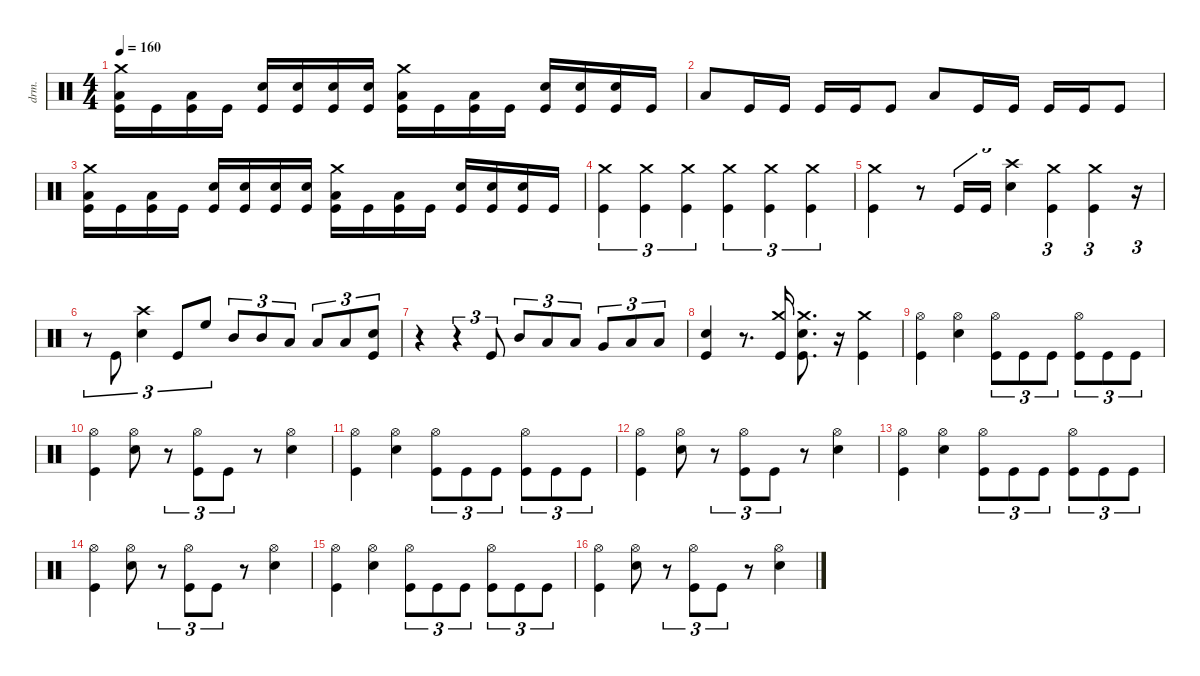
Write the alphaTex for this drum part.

\defaultSystemsLayout 4
\hideDynamics
\bracketExtendMode nobrackets
\otherSystemsTrackNameOrientation horizontal
\track ("Nick Menza" "drm.") {defaultSystemsLayout 4 instrument percussion}
\staff {score}
\articulation defaults
\ts (4 4)
\tempo 160
\clef neutral
\ks c
("Crash medium (hit)" "Low Floor Tom (hit)" "Kick (hit)").16{dy f beam Down} "Kick (hit)".16{beam Down} ("Low Floor Tom (hit)" "Kick (hit)").16{beam Down} "Kick (hit)".16{beam Down} ("Snare (hit) 2" "Kick (hit)").16{beam Up} ("Snare (hit) 2" "Kick (hit)").16{beam Up} ("Snare (hit) 2" "Kick (hit)").16{beam Up} ("Snare (hit) 2" "Kick (hit)").16{beam Up} ("Crash medium (hit)" "Low Floor Tom (hit)" "Kick (hit)").16{beam Down} "Kick (hit)".16{beam Down} ("Low Floor Tom (hit)" "Kick (hit)").16{beam Down} "Kick (hit)".16{beam Down} ("Snare (hit) 2" "Kick (hit)").16{beam Up} ("Snare (hit) 2" "Kick (hit)").16{beam Up} ("Snare (hit) 2" "Kick (hit)").16{beam Up} "Kick (hit)".16{beam Up} |
"Low Floor Tom (hit)".8{beam Up} "Kick (hit)".16{beam Up} "Kick (hit)".16{beam Up} "Kick (hit)".16{beam Up} "Kick (hit)".16{beam Up} "Kick (hit)".8{beam Up} "Low Floor Tom (hit)".8{beam Up} "Kick (hit)".16{beam Up} "Kick (hit)".16{beam Up} "Kick (hit)".16{beam Up} "Kick (hit)".16{beam Up} "Kick (hit)".8{beam Up} |
("Crash medium (hit)" "Low Floor Tom (hit)" "Kick (hit)").16{beam Down} "Kick (hit)".16{beam Down} ("Low Floor Tom (hit)" "Kick (hit)").16{beam Down} "Kick (hit)".16{beam Down} ("Snare (hit) 2" "Kick (hit)").16{beam Up} ("Snare (hit) 2" "Kick (hit)").16{beam Up} ("Snare (hit) 2" "Kick (hit)").16{beam Up} ("Snare (hit) 2" "Kick (hit)").16{beam Up} ("Crash medium (hit)" "Low Floor Tom (hit)" "Kick (hit)").16{beam Down} "Kick (hit)".16{beam Down} ("Low Floor Tom (hit)" "Kick (hit)").16{beam Down} "Kick (hit)".16{beam Down} ("Snare (hit) 2" "Kick (hit)").16{beam Up} ("Snare (hit) 2" "Kick (hit)").16{beam Up} ("Snare (hit) 2" "Kick (hit)").16{beam Up} "Kick (hit)".16{beam Up} |
("Crash medium (hit)" "Kick (hit)").4{tu (3 2) beam Down} ("Crash medium (hit)" "Kick (hit)").4{tu (3 2) beam Down} ("Crash medium (hit)" "Kick (hit)").4{tu (3 2) beam Down} ("Crash medium (hit)" "Kick (hit)").4{tu (3 2) beam Down} ("Crash medium (hit)" "Kick (hit)").4{tu (3 2) beam Down} ("Crash medium (hit)" "Kick (hit)").4{tu (3 2) beam Down} |
("Crash medium (hit)" "Kick (hit)").4{beam Down} r.8{beam Down} "Kick (hit)".16{tu (3 2) beam Up} "Kick (hit)".16{tu (3 2) beam Up} ("Crash high (hit)" "Snare (hit) 2").4{tu (3 2) beam Down} ("Crash medium (hit)" "Kick (hit)").4{tu (3 2) beam Down} ("Crash medium (hit)" "Kick (hit)").4{tu (3 2) beam Down} r.16{tu (3 2) beam Down} |
r.8{tu (3 2) beam Down} "Kick (hit)".8{tu (3 2) beam Up} ("Crash high (hit)" "Snare (hit) 2").4{tu (3 2) beam Down} "Kick (hit)".8{tu (3 2) beam Up} "High Floor Tom (hit)".8{tu (3 2) beam Up} "Mid Tom (hit)".8{tu (3 2) beam Up} "Mid Tom (hit)".8{tu (3 2) beam Up} "Low Tom (hit)".8{tu (3 2) beam Up} "Low Tom (hit)".8{tu (3 2) beam Up} "Low Tom (hit)".8{tu (3 2) beam Up} ("Snare (hit) 2" "Kick (hit)").8{tu (3 2) beam Up} |
r.4{beam Down} r.4{tu (3 2) beam Down} "Kick (hit)".8{tu (3 2) beam Up} "Mid Tom (hit)".8{tu (3 2) beam Up} "Low Tom (hit)".8{tu (3 2) beam Up} "Low Tom (hit)".8{tu (3 2) beam Up} "Very Low Tom (hit)".8{tu (3 2) beam Up} "Low Floor Tom (hit)".8{tu (3 2) beam Up} "Low Floor Tom (hit)".8{tu (3 2) beam Up} |
("Snare (hit) 2" "Kick (hit)").4{beam Up} r.8{d beam Up} ("Crash medium (hit)" "Kick (hit)").16{beam Down} ("Crash medium (hit)" "Snare (hit) 2" "Kick (hit)").8{d beam Down} r.16{beam Down} ("Crash medium (hit)" "Kick (hit)").4{beam Down} |
("Hi-Hat (open)" "Kick (hit)").4{beam Down} ("Hi-Hat (open)" "Snare (hit) 2").4{beam Down} ("Hi-Hat (open)" "Kick (hit)").8{tu (3 2) beam Down} "Kick (hit)".8{tu (3 2) beam Down} "Kick (hit)".8{tu (3 2) beam Down} ("Hi-Hat (open)" "Kick (hit)").8{tu (3 2) beam Down} "Kick (hit)".8{tu (3 2) beam Down} "Kick (hit)".8{tu (3 2) beam Down} |
("Hi-Hat (open)" "Kick (hit)").4{beam Down} ("Hi-Hat (open)" "Snare (hit) 2").8{beam Down} r.8{tu (3 2) beam Down} ("Hi-Hat (open)" "Kick (hit)").8{tu (3 2) beam Down} "Kick (hit)".8{tu (3 2) beam Down} r.8{beam Down} ("Hi-Hat (open)" "Snare (hit) 2").4{beam Down} |
("Hi-Hat (open)" "Kick (hit)").4{beam Down} ("Hi-Hat (open)" "Snare (hit) 2").4{beam Down} ("Hi-Hat (open)" "Kick (hit)").8{tu (3 2) beam Down} "Kick (hit)".8{tu (3 2) beam Down} "Kick (hit)".8{tu (3 2) beam Down} ("Hi-Hat (open)" "Kick (hit)").8{tu (3 2) beam Down} "Kick (hit)".8{tu (3 2) beam Down} "Kick (hit)".8{tu (3 2) beam Down} |
("Hi-Hat (open)" "Kick (hit)").4{beam Down} ("Hi-Hat (open)" "Snare (hit) 2").8{beam Down} r.8{tu (3 2) beam Down} ("Hi-Hat (open)" "Kick (hit)").8{tu (3 2) beam Down} "Kick (hit)".8{tu (3 2) beam Down} r.8{beam Down} ("Hi-Hat (open)" "Snare (hit) 2").4{beam Down} |
("Hi-Hat (open)" "Kick (hit)").4{beam Down} ("Hi-Hat (open)" "Snare (hit) 2").4{beam Down} ("Hi-Hat (open)" "Kick (hit)").8{tu (3 2) beam Down} "Kick (hit)".8{tu (3 2) beam Down} "Kick (hit)".8{tu (3 2) beam Down} ("Hi-Hat (open)" "Kick (hit)").8{tu (3 2) beam Down} "Kick (hit)".8{tu (3 2) beam Down} "Kick (hit)".8{tu (3 2) beam Down} |
("Hi-Hat (open)" "Kick (hit)").4{beam Down} ("Hi-Hat (open)" "Snare (hit) 2").8{beam Down} r.8{tu (3 2) beam Down} ("Hi-Hat (open)" "Kick (hit)").8{tu (3 2) beam Down} "Kick (hit)".8{tu (3 2) beam Down} r.8{beam Down} ("Hi-Hat (open)" "Snare (hit) 2").4{beam Down} |
("Hi-Hat (open)" "Kick (hit)").4{beam Down} ("Hi-Hat (open)" "Snare (hit) 2").4{beam Down} ("Hi-Hat (open)" "Kick (hit)").8{tu (3 2) beam Down} "Kick (hit)".8{tu (3 2) beam Down} "Kick (hit)".8{tu (3 2) beam Down} ("Hi-Hat (open)" "Kick (hit)").8{tu (3 2) beam Down} "Kick (hit)".8{tu (3 2) beam Down} "Kick (hit)".8{tu (3 2) beam Down} |
("Hi-Hat (open)" "Kick (hit)").4{beam Down} ("Hi-Hat (open)" "Snare (hit) 2").8{beam Down} r.8{tu (3 2) beam Down} ("Hi-Hat (open)" "Kick (hit)").8{tu (3 2) beam Down} "Kick (hit)".8{tu (3 2) beam Down} r.8{beam Down} ("Hi-Hat (open)" "Snare (hit) 2").4{beam Down}
